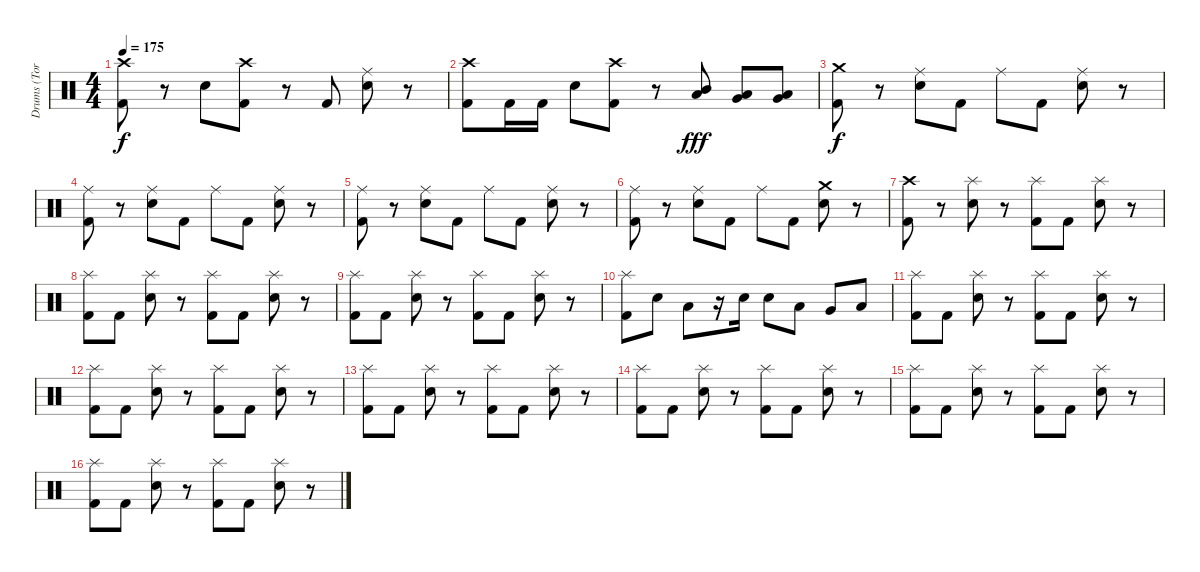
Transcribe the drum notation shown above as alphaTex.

\track ("Drums (Tora)" "Drums (Tor") {instrument percussion}
\staff {score}
\articulation defaults
\ts (4 4)
\tempo 175
\clef neutral
\ks c
("Crash high (hit)" "Kick (hit) 2").8{dy f} r.8 "Electric Snare (hit)".8 ("Crash high (hit)" "Kick (hit) 2").8 r.8 "Kick (hit) 2".8 ("Ride (middle)" "Electric Snare (hit)").8 r.8 |
("Crash high (hit)" "Kick (hit) 2").8 "Kick (hit) 2".16 "Kick (hit) 2".16 "Electric Snare (hit)".8 ("Crash high (hit)" "Kick (hit) 2").8 r.8 ("Mid Tom (hit)" "Low Tom (hit)").8{dy fff} ("Low Tom (hit)" "Very Low Tom (hit)").8 ("Very Low Tom (hit)" "Low Floor Tom (hit)").8 |
("Crash medium (hit)" "Kick (hit) 2").8{dy f} r.8 ("Ride (middle)" "Electric Snare (hit)").8 "Kick (hit) 2".8 "Ride (middle)".8 "Kick (hit) 2".8 ("Ride (middle)" "Electric Snare (hit)").8 r.8 |
("Ride (middle)" "Kick (hit) 2").8 r.8 ("Ride (middle)" "Electric Snare (hit)").8 "Kick (hit) 2".8 "Ride (middle)".8 "Kick (hit) 2".8 ("Ride (middle)" "Electric Snare (hit)").8 r.8 |
("Ride (middle)" "Kick (hit) 2").8 r.8 ("Ride (middle)" "Electric Snare (hit)").8 "Kick (hit) 2".8 "Ride (middle)".8 "Kick (hit) 2".8 ("Ride (middle)" "Electric Snare (hit)").8 r.8 |
("Ride (middle)" "Kick (hit) 2").8 r.8 ("Ride (middle)" "Electric Snare (hit)").8 "Kick (hit) 2".8 "Ride (middle)".8 "Kick (hit) 2".8 ("Crash medium (hit)" "Electric Snare (hit)").8 r.8 |
("Crash high (hit)" "Kick (hit) 2").8 r.8 ("Splash (hit)" "Electric Snare (hit)").8 r.8 ("Splash (hit)" "Kick (hit) 2").8 "Kick (hit) 2".8 ("Splash (hit)" "Electric Snare (hit)").8 r.8 |
("Splash (hit)" "Kick (hit) 2").8 "Kick (hit) 2".8 ("Splash (hit)" "Electric Snare (hit)").8 r.8 ("Splash (hit)" "Kick (hit) 2").8 "Kick (hit) 2".8 ("Splash (hit)" "Electric Snare (hit)").8 r.8 |
("Splash (hit)" "Kick (hit) 2").8 "Kick (hit) 2".8 ("Splash (hit)" "Electric Snare (hit)").8 r.8 ("Splash (hit)" "Kick (hit) 2").8 "Kick (hit) 2".8 ("Splash (hit)" "Electric Snare (hit)").8 r.8 |
("Splash (hit)" "Kick (hit) 2").8 "Electric Snare (hit)".8 "Low Tom (hit)".8 r.16 "Electric Snare (hit)".16 "Electric Snare (hit)".8 "Low Tom (hit)".8 "Very Low Tom (hit)".8 "Low Floor Tom (hit)".8 |
("Splash (hit)" "Kick (hit) 2").8 "Kick (hit) 2".8 ("Splash (hit)" "Electric Snare (hit)").8 r.8 ("Splash (hit)" "Kick (hit) 2").8 "Kick (hit) 2".8 ("Splash (hit)" "Electric Snare (hit)").8 r.8 |
("Splash (hit)" "Kick (hit) 2").8 "Kick (hit) 2".8 ("Splash (hit)" "Electric Snare (hit)").8 r.8 ("Splash (hit)" "Kick (hit) 2").8 "Kick (hit) 2".8 ("Splash (hit)" "Electric Snare (hit)").8 r.8 |
("Splash (hit)" "Kick (hit) 2").8 "Kick (hit) 2".8 ("Splash (hit)" "Electric Snare (hit)").8 r.8 ("Splash (hit)" "Kick (hit) 2").8 "Kick (hit) 2".8 ("Splash (hit)" "Electric Snare (hit)").8 r.8 |
("Splash (hit)" "Kick (hit) 2").8 "Kick (hit) 2".8 ("Splash (hit)" "Electric Snare (hit)").8 r.8 ("Splash (hit)" "Kick (hit) 2").8 "Kick (hit) 2".8 ("Splash (hit)" "Electric Snare (hit)").8 r.8 |
("Splash (hit)" "Kick (hit) 2").8 "Kick (hit) 2".8 ("Splash (hit)" "Electric Snare (hit)").8 r.8 ("Splash (hit)" "Kick (hit) 2").8 "Kick (hit) 2".8 ("Splash (hit)" "Electric Snare (hit)").8 r.8 |
("Splash (hit)" "Kick (hit) 2").8 "Kick (hit) 2".8 ("Splash (hit)" "Electric Snare (hit)").8 r.8 ("Splash (hit)" "Kick (hit) 2").8 "Kick (hit) 2".8 ("Splash (hit)" "Electric Snare (hit)").8 r.8
